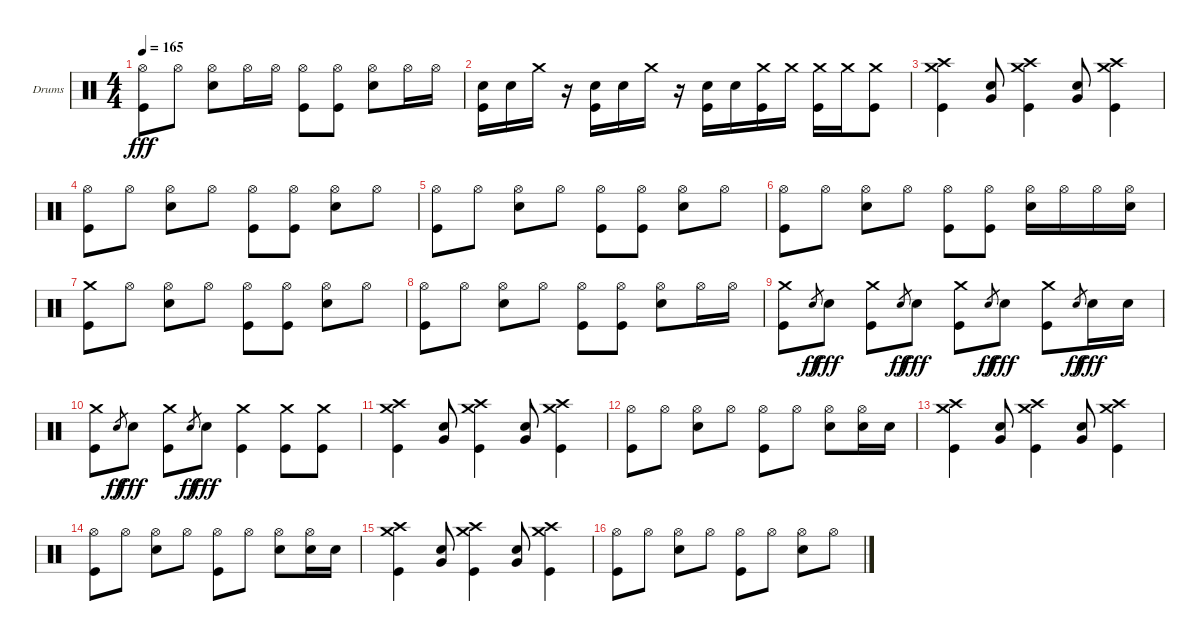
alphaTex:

\defaultSystemsLayout 4
\bracketExtendMode groupsimilarinstruments
\firstSystemTrackNameOrientation horizontal
\otherSystemsTrackNameOrientation horizontal
\track ("Drumkit" "Drums") {instrument percussion}
\staff {score}
\articulation defaults
\ts (4 4)
\tempo 165
\clef neutral
\ks c
("Hi-Hat (open)" "Kick (hit)").8{dy fff} "Hi-Hat (open)".8 ("Hi-Hat (open)" "Snare (hit) 2").8 "Hi-Hat (open)".16 "Hi-Hat (open)".16 ("Hi-Hat (open)" "Kick (hit)").8 ("Hi-Hat (open)" "Kick (hit)").8 ("Hi-Hat (open)" "Snare (hit) 2").8 "Hi-Hat (open)".16 "Hi-Hat (open)".16 |
("Snare (hit) 2" "Kick (hit)").16 "Snare (hit) 2".16 "Crash medium (hit)".16 r.16 ("Snare (hit) 2" "Kick (hit)").16 "Snare (hit) 2".16 "Crash medium (hit)".16 r.16 ("Snare (hit) 2" "Kick (hit)").16 "Snare (hit) 2".16 ("Crash medium (hit)" "Kick (hit)").16 "Crash medium (hit)".16 ("Crash medium (hit)" "Kick (hit)").16 "Crash medium (hit)".16 ("Crash medium (hit)" "Kick (hit)").8 |
("Crash high (hit)" "Crash medium (hit)" "Kick (hit)").4 ("Snare (hit) 2" "Very Low Tom (hit)").8 ("Crash high (hit)" "Crash medium (hit)" "Kick (hit)").4 ("Snare (hit) 2" "Very Low Tom (hit)").8 ("Crash high (hit)" "Crash medium (hit)" "Kick (hit)").4 |
("Hi-Hat (open)" "Kick (hit)").8 "Hi-Hat (open)".8 ("Hi-Hat (open)" "Snare (hit) 2").8 "Hi-Hat (open)".8 ("Hi-Hat (open)" "Kick (hit)").8 ("Hi-Hat (open)" "Kick (hit)").8 ("Hi-Hat (open)" "Snare (hit) 2").8 "Hi-Hat (open)".8 |
("Hi-Hat (open)" "Kick (hit)").8 "Hi-Hat (open)".8 ("Hi-Hat (open)" "Snare (hit) 2").8 "Hi-Hat (open)".8 ("Hi-Hat (open)" "Kick (hit)").8 ("Hi-Hat (open)" "Kick (hit)").8 ("Hi-Hat (open)" "Snare (hit) 2").8 "Hi-Hat (open)".8 |
("Hi-Hat (open)" "Kick (hit)").8 "Hi-Hat (open)".8 ("Hi-Hat (open)" "Snare (hit) 2").8 "Hi-Hat (open)".8 ("Hi-Hat (open)" "Kick (hit)").8 ("Hi-Hat (open)" "Kick (hit)").8 ("Hi-Hat (open)" "Snare (hit) 2").16 "Hi-Hat (open)".16 "Hi-Hat (open)".16 ("Hi-Hat (open)" "Snare (hit) 2").16 |
("Crash medium (hit)" "Kick (hit)").8 "Hi-Hat (open)".8 ("Hi-Hat (open)" "Snare (hit) 2").8 "Hi-Hat (open)".8 ("Hi-Hat (open)" "Kick (hit)").8 ("Hi-Hat (open)" "Kick (hit)").8 ("Hi-Hat (open)" "Snare (hit) 2").8 "Hi-Hat (open)".8 |
("Hi-Hat (open)" "Kick (hit)").8 "Hi-Hat (open)".8 ("Hi-Hat (open)" "Snare (hit) 2").8 "Hi-Hat (open)".8 ("Hi-Hat (open)" "Kick (hit)").8 ("Hi-Hat (open)" "Kick (hit)").8 ("Hi-Hat (open)" "Snare (hit) 2").8 "Hi-Hat (open)".16 "Hi-Hat (open)".16 |
("Crash medium (hit)" "Kick (hit)").8 "Snare (hit) 2".8{gr dy ff} "Snare (hit) 2".8{dy fff} ("Crash medium (hit)" "Kick (hit)").8 "Snare (hit) 2".8{gr dy ff} "Snare (hit) 2".8{dy fff} ("Crash medium (hit)" "Kick (hit)").8 "Snare (hit) 2".8{gr dy ff} "Snare (hit) 2".8{dy fff} ("Crash medium (hit)" "Kick (hit)").8 "Snare (hit) 2".8{gr dy ff} "Snare (hit) 2".16{dy fff} "Snare (hit) 2".16 |
("Crash medium (hit)" "Kick (hit)").8 "Snare (hit) 2".8{gr dy ff} "Snare (hit) 2".8{dy fff} ("Crash medium (hit)" "Kick (hit)").8 "Snare (hit) 2".8{gr dy ff} "Snare (hit) 2".8{dy fff} ("Crash medium (hit)" "Kick (hit)").4 ("Crash medium (hit)" "Kick (hit)").8 ("Crash medium (hit)" "Kick (hit)").8 |
("Crash high (hit)" "Crash medium (hit)" "Kick (hit)").4 ("Snare (hit) 2" "Very Low Tom (hit)").8 ("Crash high (hit)" "Crash medium (hit)" "Kick (hit)").4 ("Snare (hit) 2" "Very Low Tom (hit)").8 ("Crash high (hit)" "Crash medium (hit)" "Kick (hit)").4 |
("Hi-Hat (open)" "Kick (hit)").8 "Hi-Hat (open)".8 ("Hi-Hat (open)" "Snare (hit) 2").8 "Hi-Hat (open)".8 ("Hi-Hat (open)" "Kick (hit)").8 "Hi-Hat (open)".8 ("Hi-Hat (open)" "Snare (hit) 2").8 ("Hi-Hat (open)" "Snare (hit) 2").16 "Snare (hit) 2".16 |
("Crash high (hit)" "Crash medium (hit)" "Kick (hit)").4 ("Snare (hit) 2" "Very Low Tom (hit)").8 ("Crash high (hit)" "Crash medium (hit)" "Kick (hit)").4 ("Snare (hit) 2" "Very Low Tom (hit)").8 ("Crash high (hit)" "Crash medium (hit)" "Kick (hit)").4 |
("Hi-Hat (open)" "Kick (hit)").8 "Hi-Hat (open)".8 ("Hi-Hat (open)" "Snare (hit) 2").8 "Hi-Hat (open)".8 ("Hi-Hat (open)" "Kick (hit)").8 "Hi-Hat (open)".8 ("Hi-Hat (open)" "Snare (hit) 2").8 ("Hi-Hat (open)" "Snare (hit) 2").16 "Snare (hit) 2".16 |
("Crash high (hit)" "Crash medium (hit)" "Kick (hit)").4 ("Snare (hit) 2" "Very Low Tom (hit)").8 ("Crash high (hit)" "Crash medium (hit)" "Kick (hit)").4 ("Snare (hit) 2" "Very Low Tom (hit)").8 ("Crash high (hit)" "Crash medium (hit)" "Kick (hit)").4 |
("Hi-Hat (open)" "Kick (hit)").8 "Hi-Hat (open)".8 ("Hi-Hat (open)" "Snare (hit) 2").8 "Hi-Hat (open)".8 ("Hi-Hat (open)" "Kick (hit)").8 "Hi-Hat (open)".8 ("Hi-Hat (open)" "Snare (hit) 2").8 "Hi-Hat (open)".8
